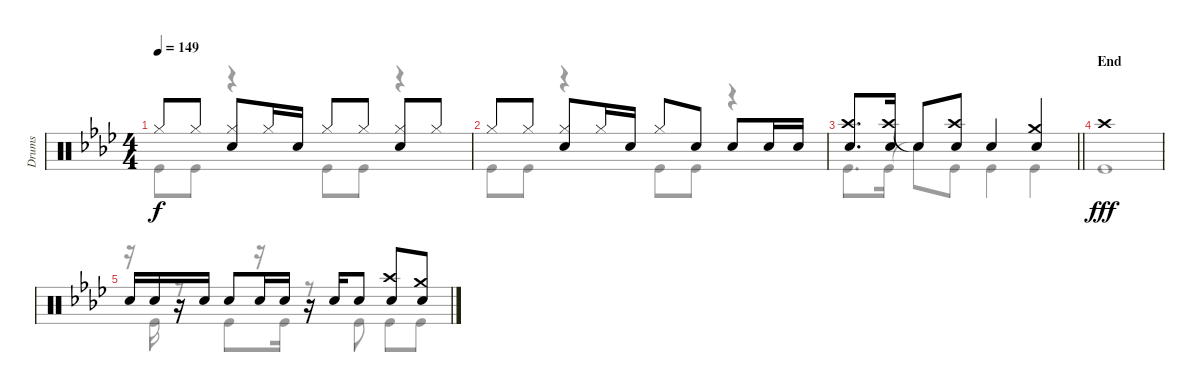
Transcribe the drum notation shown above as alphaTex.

\track ("Drums" "Drums") {instrument percussion}
\staff {score}
\articulation defaults
\voice
\ts (4 4)
\tempo 149
\clef neutral
\ks ab "Hi-Hat (closed)".8{dy f} "Hi-Hat (closed)".8
("Hi-Hat (closed)" "Snare (hit) 2").8 "Hi-Hat (closed)".16 "Snare (hit) 2".16 "Hi-Hat (closed)".8 "Hi-Hat (closed)".8 ("Hi-Hat (closed)" "Snare (hit) 2").8 "Hi-Hat (closed)".8 |
"Hi-Hat (closed)".8 "Hi-Hat (closed)".8 ("Hi-Hat (closed)" "Snare (hit) 2").8 "Hi-Hat (closed)".16 "Snare (hit) 2".16 "Hi-Hat (closed)".8 "Snare (hit) 2".8 "Snare (hit) 2".8 "Snare (hit) 2".16 "Snare (hit) 2".16 |
\barLineRight lightlight
("Crash high (hit)" "Snare (hit) 2").8{d} ("Crash high (hit)" "Snare (hit) 2").16 "Snare (hit)"{t}.8 ("Crash high (hit)" "Snare (hit) 2").8 "Snare (hit) 2".4 ("Crash medium (hit)" "Snare (hit) 2").4 |
\section ("" "End")
"Crash high (hit)".1{dy fff} |
"Snare (hit) 2".16 "Snare (hit) 2".16 r.16 "Snare (hit) 2".16 "Snare (hit) 2".8 "Snare (hit) 2".16 "Snare (hit) 2".16 r.16 "Snare (hit) 2".16 "Snare (hit) 2".8 ("Crash high (hit)" "Snare (hit) 2").8 ("Crash medium (hit)" "Snare (hit) 2").8
\voice
\clef neutral
\ottava regular
\simile none
\ks ab "Kick (hit)".8{dy f} "Kick (hit)".8
r.4 "Kick (hit)".8 "Kick (hit)".8 r.4 |
"Kick (hit)".8 "Kick (hit)".8 r.4 "Kick (hit)".8 "Kick (hit)".8 r.4 |
\barLineRight lightlight "Kick (hit)".8{d} "Kick (hit)".16 "Snare (hit)"{t}.8 "Kick (hit)".8 "Kick (hit)".4 "Kick (hit)".4
|
"Kick (hit)".1{dy fff} |
r.16 "Kick (hit)".16 r.8 "Kick (hit)".8 r.16 "Kick (hit)".16 r.8 "Kick (hit)".8 "Kick (hit)".8 "Kick (hit)".8
